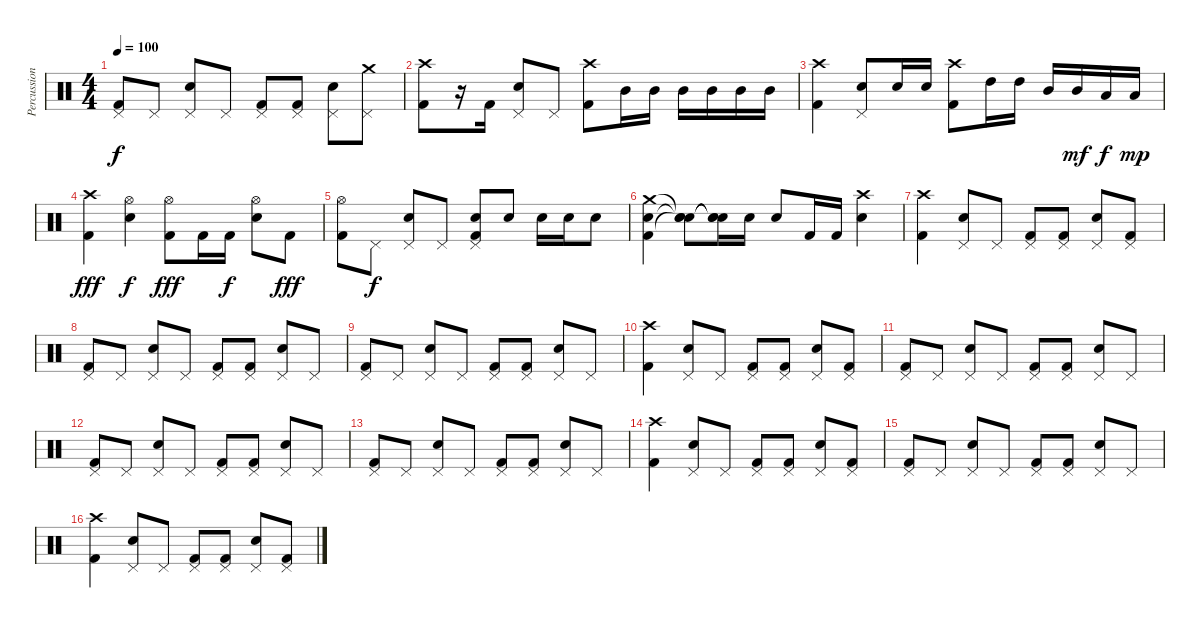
\track ("Percussion" "Percussion") {instrument percussion}
\staff {score}
\articulation defaults
\ts (4 4)
\tempo 100
\clef neutral
\ks c
("Pedal Hi-Hat (hit)" "Kick (hit) 2").8{dy f} "Pedal Hi-Hat (hit)".8 ("Pedal Hi-Hat (hit)" "Snare (hit) 2").8 "Pedal Hi-Hat (hit)".8 ("Pedal Hi-Hat (hit)" "Kick (hit) 2").8 ("Pedal Hi-Hat (hit)" "Kick (hit) 2").8 ("Pedal Hi-Hat (hit)" "Snare (hit) 2").8 ("Pedal Hi-Hat (hit)" "Crash medium (hit)").8 |
("Crash high (hit)" "Kick (hit) 2").8 r.16 "Kick (hit) 2".16 ("Pedal Hi-Hat (hit)" "Snare (hit) 2").8 "Pedal Hi-Hat (hit)".8 ("Crash high (hit)" "Kick (hit) 2").8 "Mid Tom (hit)".16 "Mid Tom (hit)".16 "Mid Tom (hit)".16 "Mid Tom (hit)".16 "Mid Tom (hit)".16 "Mid Tom (hit)".16 |
("Crash high (hit)" "Kick (hit) 2").4 ("Pedal Hi-Hat (hit)" "Snare (hit) 2").8 "Snare (hit) 2".16 "Snare (hit) 2".16 ("Crash high (hit)" "Kick (hit) 2").8 "High Tom (hit)".16 "High Tom (hit)".16 "Mid Tom (hit)".16 "Mid Tom (hit)".16{dy mf} "Low Tom (hit)".16{dy f} "Low Tom (hit)".16{dy mp} |
("Crash high (hit)" "Kick (hit) 2").4{dy fff} ("Hi-Hat (open)" "Snare (hit) 2").4{dy f} ("Hi-Hat (open)" "Kick (hit) 2").8{dy fff} "Kick (hit) 2".16 "Kick (hit) 2".16{dy f} ("Hi-Hat (open)" "Snare (hit) 2").8 "Kick (hit) 2".8{dy fff} |
("Hi-Hat (open)" "Kick (hit) 2").8 "Pedal Hi-Hat (hit)".8{dy f} ("Pedal Hi-Hat (hit)" "Snare (hit) 2").8 "Pedal Hi-Hat (hit)".8 ("Pedal Hi-Hat (hit)" "Snare (hit) 2" "Kick (hit) 2").8 "Snare (hit) 2".8 "Snare (hit) 2".16 "Snare (hit) 2".16 "Snare (hit) 2".8 |
("Crash medium (hit)" "Snare (hit) 2" "Kick (hit) 2").4 ("Snare (hit)"{t} "Snare (hit)"{t} "Snare (hit)"{t}).8 ("Snare (hit)"{t} "Snare (hit)"{t} "Snare (hit)"{t}).16 "Snare (hit) 2".16 "Snare (hit) 2".8 "Kick (hit) 2".16 "Kick (hit) 2".16 ("Snare (hit) 2" "Crash high (hit)").4 |
("Crash high (hit)" "Kick (hit) 2").4 ("Pedal Hi-Hat (hit)" "Snare (hit) 2").8 "Pedal Hi-Hat (hit)".8 ("Pedal Hi-Hat (hit)" "Kick (hit) 2").8 ("Pedal Hi-Hat (hit)" "Kick (hit) 2").8 ("Pedal Hi-Hat (hit)" "Snare (hit) 2").8 ("Pedal Hi-Hat (hit)" "Kick (hit) 2").8 |
("Pedal Hi-Hat (hit)" "Kick (hit) 2").8 "Pedal Hi-Hat (hit)".8 ("Pedal Hi-Hat (hit)" "Snare (hit) 2").8 "Pedal Hi-Hat (hit)".8 ("Pedal Hi-Hat (hit)" "Kick (hit) 2").8 ("Pedal Hi-Hat (hit)" "Kick (hit) 2").8 ("Pedal Hi-Hat (hit)" "Snare (hit) 2").8 "Pedal Hi-Hat (hit)".8 |
("Pedal Hi-Hat (hit)" "Kick (hit) 2").8 "Pedal Hi-Hat (hit)".8 ("Pedal Hi-Hat (hit)" "Snare (hit) 2").8 "Pedal Hi-Hat (hit)".8 ("Pedal Hi-Hat (hit)" "Kick (hit) 2").8 ("Pedal Hi-Hat (hit)" "Kick (hit) 2").8 ("Pedal Hi-Hat (hit)" "Snare (hit) 2").8 "Pedal Hi-Hat (hit)".8 |
("Crash high (hit)" "Kick (hit) 2").4 ("Pedal Hi-Hat (hit)" "Snare (hit) 2").8 "Pedal Hi-Hat (hit)".8 ("Pedal Hi-Hat (hit)" "Kick (hit) 2").8 ("Pedal Hi-Hat (hit)" "Kick (hit) 2").8 ("Pedal Hi-Hat (hit)" "Snare (hit) 2").8 ("Pedal Hi-Hat (hit)" "Kick (hit) 2").8 |
("Pedal Hi-Hat (hit)" "Kick (hit) 2").8 "Pedal Hi-Hat (hit)".8 ("Pedal Hi-Hat (hit)" "Snare (hit) 2").8 "Pedal Hi-Hat (hit)".8 ("Pedal Hi-Hat (hit)" "Kick (hit) 2").8 ("Pedal Hi-Hat (hit)" "Kick (hit) 2").8 ("Pedal Hi-Hat (hit)" "Snare (hit) 2").8 "Pedal Hi-Hat (hit)".8 |
("Pedal Hi-Hat (hit)" "Kick (hit) 2").8 "Pedal Hi-Hat (hit)".8 ("Pedal Hi-Hat (hit)" "Snare (hit) 2").8 "Pedal Hi-Hat (hit)".8 ("Pedal Hi-Hat (hit)" "Kick (hit) 2").8 ("Pedal Hi-Hat (hit)" "Kick (hit) 2").8 ("Pedal Hi-Hat (hit)" "Snare (hit) 2").8 "Pedal Hi-Hat (hit)".8 |
("Pedal Hi-Hat (hit)" "Kick (hit) 2").8 "Pedal Hi-Hat (hit)".8 ("Pedal Hi-Hat (hit)" "Snare (hit) 2").8 "Pedal Hi-Hat (hit)".8 ("Pedal Hi-Hat (hit)" "Kick (hit) 2").8 ("Pedal Hi-Hat (hit)" "Kick (hit) 2").8 ("Pedal Hi-Hat (hit)" "Snare (hit) 2").8 "Pedal Hi-Hat (hit)".8 |
("Crash high (hit)" "Kick (hit) 2").4 ("Pedal Hi-Hat (hit)" "Snare (hit) 2").8 "Pedal Hi-Hat (hit)".8 ("Pedal Hi-Hat (hit)" "Kick (hit) 2").8 ("Pedal Hi-Hat (hit)" "Kick (hit) 2").8 ("Pedal Hi-Hat (hit)" "Snare (hit) 2").8 ("Pedal Hi-Hat (hit)" "Kick (hit) 2").8 |
("Pedal Hi-Hat (hit)" "Kick (hit) 2").8 "Pedal Hi-Hat (hit)".8 ("Pedal Hi-Hat (hit)" "Snare (hit) 2").8 "Pedal Hi-Hat (hit)".8 ("Pedal Hi-Hat (hit)" "Kick (hit) 2").8 ("Pedal Hi-Hat (hit)" "Kick (hit) 2").8 ("Pedal Hi-Hat (hit)" "Snare (hit) 2").8 "Pedal Hi-Hat (hit)".8 |
("Crash high (hit)" "Kick (hit) 2").4 ("Pedal Hi-Hat (hit)" "Snare (hit) 2").8 "Pedal Hi-Hat (hit)".8 ("Pedal Hi-Hat (hit)" "Kick (hit) 2").8 ("Pedal Hi-Hat (hit)" "Kick (hit) 2").8 ("Pedal Hi-Hat (hit)" "Snare (hit) 2").8 ("Pedal Hi-Hat (hit)" "Kick (hit) 2").8
